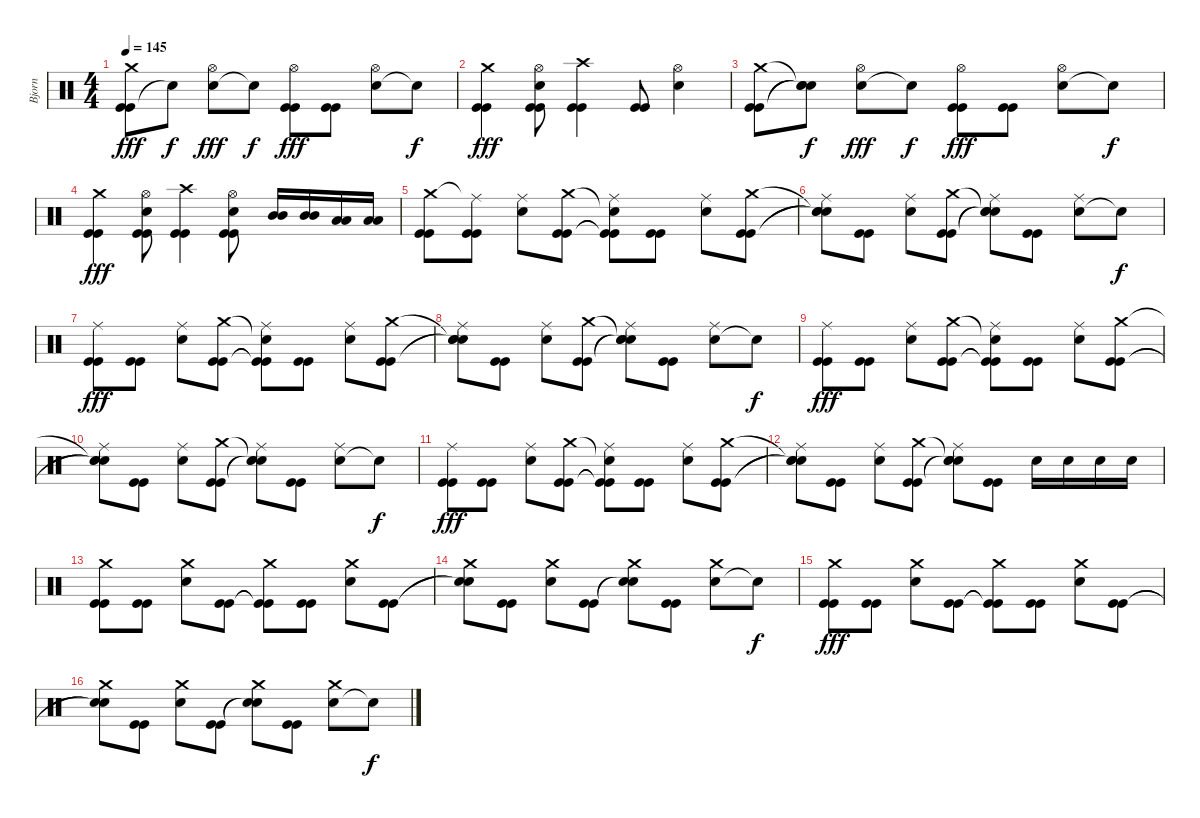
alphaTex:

\track ("Bjorn" "Bjorn") {instrument percussion}
\staff {score}
\articulation defaults
\ts (4 4)
\tempo 145
\clef neutral
\ks c
("Kick (hit)" "Kick (hit)" "Crash medium (hit)").8{dy fff} "Snare (hit)"{t}.8{dy f} ("Snare (hit) 2" "Hi-Hat (open)").8{dy fff} "Snare (hit)"{t}.8{dy f} ("Kick (hit)" "Kick (hit)" "Hi-Hat (open)").8{dy fff} ("Kick (hit)" "Kick (hit)").8 ("Snare (hit) 2" "Hi-Hat (open)").8 "Snare (hit)"{t}.8{dy f} |
("Kick (hit)" "Kick (hit)" "Crash medium (hit)").4{dy fff} ("Kick (hit)" "Kick (hit)" "Snare (hit) 2" "Hi-Hat (open)").8 ("Kick (hit)" "Kick (hit)" "Crash high (hit)").4 ("Kick (hit)" "Kick (hit)").8 ("Snare (hit) 2" "Hi-Hat (open)").4 |
("Kick (hit)" "Kick (hit)" "Crash medium (hit)").8 ("Snare (hit)"{t} "Snare (hit)"{t} "Snare (hit)"{t}).8{dy f} ("Snare (hit) 2" "Hi-Hat (open)").8{dy fff} "Snare (hit)"{t}.8{dy f} ("Kick (hit)" "Kick (hit)" "Hi-Hat (open)").8{dy fff} ("Kick (hit)" "Kick (hit)").8 ("Snare (hit) 2" "Hi-Hat (open)").8 "Snare (hit)"{t}.8{dy f} |
("Kick (hit)" "Kick (hit)" "Crash medium (hit)").4{dy fff} ("Kick (hit)" "Kick (hit)" "Snare (hit) 2" "Hi-Hat (open)").8 ("Kick (hit)" "Kick (hit)" "Crash high (hit)").4 ("Kick (hit)" "Kick (hit)" "Snare (hit) 2" "Hi-Hat (open)").8 ("Mid Tom (hit)" "Mid Tom (hit)").16 ("Mid Tom (hit)" "Mid Tom (hit)").16 ("Low Tom (hit)" "Low Tom (hit)").16 ("Low Tom (hit)" "Low Tom (hit)").16 |
("Kick (hit)" "Kick (hit)" "Crash medium (hit)").8 ("Kick (hit)" "Kick (hit)" "Ride (middle)"{t}).8 ("Snare (hit) 2" "Ride (middle)").8 ("Kick (hit)" "Kick (hit)" "Crash medium (hit)").8 ("Kick (hit)"{t} "Kick (hit)"{t} "Snare (hit)"{t} "Ride (middle)").8 ("Kick (hit)" "Kick (hit)").8 ("Snare (hit) 2" "Ride (middle)").8 ("Kick (hit)" "Kick (hit)" "Crash medium (hit)").8 |
("Snare (hit)"{t} "Snare (hit)"{t} "Snare (hit)"{t} "Ride (middle)").8 ("Kick (hit)" "Kick (hit)").8 ("Snare (hit) 2" "Ride (middle)").8 ("Kick (hit)" "Kick (hit)" "Crash medium (hit)").8 ("Snare (hit)"{t} "Snare (hit)"{t} "Snare (hit)"{t} "Ride (middle)").8 ("Kick (hit)" "Kick (hit)").8 ("Snare (hit) 2" "Ride (middle)").8 "Snare (hit)"{t}.8{dy f} |
("Kick (hit)" "Kick (hit)" "Ride (middle)").8{dy fff} ("Kick (hit)" "Kick (hit)").8 ("Snare (hit) 2" "Ride (middle)").8 ("Kick (hit)" "Kick (hit)" "Crash medium (hit)").8 ("Kick (hit)"{t} "Kick (hit)"{t} "Snare (hit)"{t} "Ride (middle)").8 ("Kick (hit)" "Kick (hit)").8 ("Snare (hit) 2" "Ride (middle)").8 ("Kick (hit)" "Kick (hit)" "Crash medium (hit)").8 |
("Snare (hit)"{t} "Snare (hit)"{t} "Snare (hit)"{t} "Ride (middle)").8 ("Kick (hit)" "Kick (hit)").8 ("Snare (hit) 2" "Ride (middle)").8 ("Kick (hit)" "Kick (hit)" "Crash medium (hit)").8 ("Snare (hit)"{t} "Snare (hit)"{t} "Snare (hit)"{t} "Ride (middle)").8 ("Kick (hit)" "Kick (hit)").8 ("Snare (hit) 2" "Ride (middle)").8 "Snare (hit)"{t}.8{dy f} |
("Kick (hit)" "Kick (hit)" "Ride (middle)").8{dy fff} ("Kick (hit)" "Kick (hit)").8 ("Snare (hit) 2" "Ride (middle)").8 ("Kick (hit)" "Kick (hit)" "Crash medium (hit)").8 ("Kick (hit)"{t} "Kick (hit)"{t} "Snare (hit)"{t} "Ride (middle)").8 ("Kick (hit)" "Kick (hit)").8 ("Snare (hit) 2" "Ride (middle)").8 ("Kick (hit)" "Kick (hit)" "Crash medium (hit)").8 |
("Snare (hit)"{t} "Snare (hit)"{t} "Snare (hit)"{t} "Ride (middle)").8 ("Kick (hit)" "Kick (hit)").8 ("Snare (hit) 2" "Ride (middle)").8 ("Kick (hit)" "Kick (hit)" "Crash medium (hit)").8 ("Snare (hit)"{t} "Snare (hit)"{t} "Snare (hit)"{t} "Ride (middle)").8 ("Kick (hit)" "Kick (hit)").8 ("Snare (hit) 2" "Ride (middle)").8 "Snare (hit)"{t}.8{dy f} |
("Kick (hit)" "Kick (hit)" "Ride (middle)").8{dy fff} ("Kick (hit)" "Kick (hit)").8 ("Snare (hit) 2" "Ride (middle)").8 ("Kick (hit)" "Kick (hit)" "Crash medium (hit)").8 ("Kick (hit)"{t} "Kick (hit)"{t} "Snare (hit)"{t} "Ride (middle)").8 ("Kick (hit)" "Kick (hit)").8 ("Snare (hit) 2" "Ride (middle)").8 ("Kick (hit)" "Kick (hit)" "Crash medium (hit)").8 |
("Snare (hit)"{t} "Snare (hit)"{t} "Snare (hit)"{t} "Ride (middle)").8 ("Kick (hit)" "Kick (hit)").8 ("Snare (hit) 2" "Ride (middle)").8 ("Kick (hit)" "Kick (hit)" "Crash medium (hit)").8 ("Snare (hit)"{t} "Snare (hit)"{t} "Snare (hit)"{t} "Ride (middle)").8 ("Kick (hit)" "Kick (hit)").8 "Snare (hit) 2".16 "Snare (hit) 2".16 "Snare (hit) 2".16 "Snare (hit) 2".16 |
("Kick (hit)" "Kick (hit)" "Crash medium (hit)").8 ("Kick (hit)" "Kick (hit)").8 ("Snare (hit) 2" "Crash medium (hit)").8 ("Kick (hit)" "Kick (hit)").8 ("Kick (hit)"{t} "Kick (hit)"{t} "Crash medium (hit)").8 ("Kick (hit)" "Kick (hit)").8 ("Snare (hit) 2" "Crash medium (hit)").8 ("Kick (hit)" "Kick (hit)").8 |
("Snare (hit)"{t} "Snare (hit)"{t} "Crash medium (hit)").8 ("Kick (hit)" "Kick (hit)").8 ("Snare (hit) 2" "Crash medium (hit)").8 ("Kick (hit)" "Kick (hit)").8 ("Snare (hit)"{t} "Snare (hit)"{t} "Crash medium (hit)").8 ("Kick (hit)" "Kick (hit)").8 ("Snare (hit) 2" "Crash medium (hit)").8 "Snare (hit)"{t}.8{dy f} |
("Kick (hit)" "Kick (hit)" "Crash medium (hit)").8{dy fff} ("Kick (hit)" "Kick (hit)").8 ("Snare (hit) 2" "Crash medium (hit)").8 ("Kick (hit)" "Kick (hit)").8 ("Kick (hit)"{t} "Kick (hit)"{t} "Crash medium (hit)").8 ("Kick (hit)" "Kick (hit)").8 ("Snare (hit) 2" "Crash medium (hit)").8 ("Kick (hit)" "Kick (hit)").8 |
("Snare (hit)"{t} "Snare (hit)"{t} "Crash medium (hit)").8 ("Kick (hit)" "Kick (hit)").8 ("Snare (hit) 2" "Crash medium (hit)").8 ("Kick (hit)" "Kick (hit)").8 ("Snare (hit)"{t} "Snare (hit)"{t} "Crash medium (hit)").8 ("Kick (hit)" "Kick (hit)").8 ("Snare (hit) 2" "Crash medium (hit)").8 "Snare (hit)"{t}.8{dy f}
